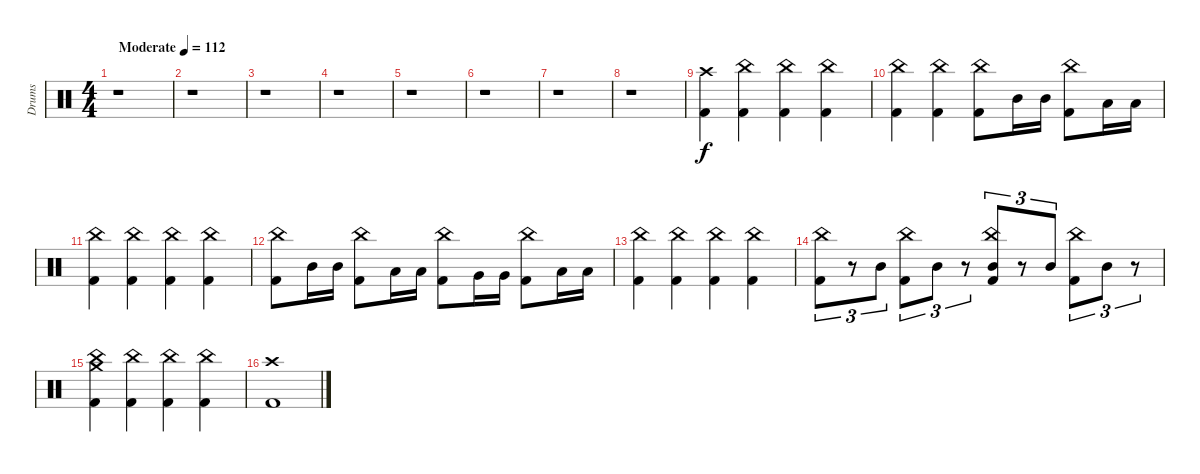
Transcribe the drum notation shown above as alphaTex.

\track ("Drums" "Drums") {instrument percussion}
\staff {score}
\articulation defaults
\ts (4 4)
\tempo (112 "Moderate")
\clef neutral
\ks c
r.1{dy f} |
r.1 |
r.1 |
r.1 |
r.1 |
r.1 |
r.1 |
r.1 |
("Crash high (hit)" "Kick (hit) 2").4 ("China (hit)" "Kick (hit) 2").4 ("China (hit)" "Kick (hit) 2").4 ("China (hit)" "Kick (hit) 2").4 |
("China (hit)" "Kick (hit) 2").4 ("China (hit)" "Kick (hit) 2").4 ("China (hit)" "Kick (hit) 2").8 "Mid Tom (hit)".16 "Mid Tom (hit)".16 ("China (hit)" "Kick (hit) 2").8 "Low Tom (hit)".16 "Low Tom (hit)".16 |
("China (hit)" "Kick (hit) 2").4 ("China (hit)" "Kick (hit) 2").4 ("China (hit)" "Kick (hit) 2").4 ("China (hit)" "Kick (hit) 2").4 |
("China (hit)" "Kick (hit) 2").8 "Mid Tom (hit)".16 "Mid Tom (hit)".16 ("China (hit)" "Kick (hit) 2").8 "Low Tom (hit)".16 "Low Tom (hit)".16 ("China (hit)" "Kick (hit) 2").8 "Very Low Tom (hit)".16 "Very Low Tom (hit)".16 ("China (hit)" "Kick (hit) 2").8 "Low Floor Tom (hit)".16 "Low Floor Tom (hit)".16 |
("China (hit)" "Kick (hit) 2").4 ("China (hit)" "Kick (hit) 2").4 ("China (hit)" "Kick (hit) 2").4 ("China (hit)" "Kick (hit) 2").4 |
("China (hit)" "Kick (hit) 2").8{tu (3 2)} r.8{tu (3 2)} "Mid Tom (hit)".8{tu (3 2)} ("China (hit)" "Kick (hit) 2").8{tu (3 2)} "Mid Tom (hit)".8{tu (3 2)} r.8{tu (3 2)} ("China (hit)" "Mid Tom (hit)" "Kick (hit) 2").8{tu (3 2)} r.8{tu (3 2)} "Mid Tom (hit)".8{tu (3 2)} ("China (hit)" "Kick (hit) 2").8{tu (3 2)} "Mid Tom (hit)".8{tu (3 2)} r.8{tu (3 2)} |
("China (hit)" "Crash medium (hit)" "Kick (hit) 2").4 ("China (hit)" "Kick (hit) 2").4 ("China (hit)" "Kick (hit) 2").4 ("China (hit)" "Kick (hit) 2").4 |
("Crash high (hit)" "Kick (hit) 2").1
